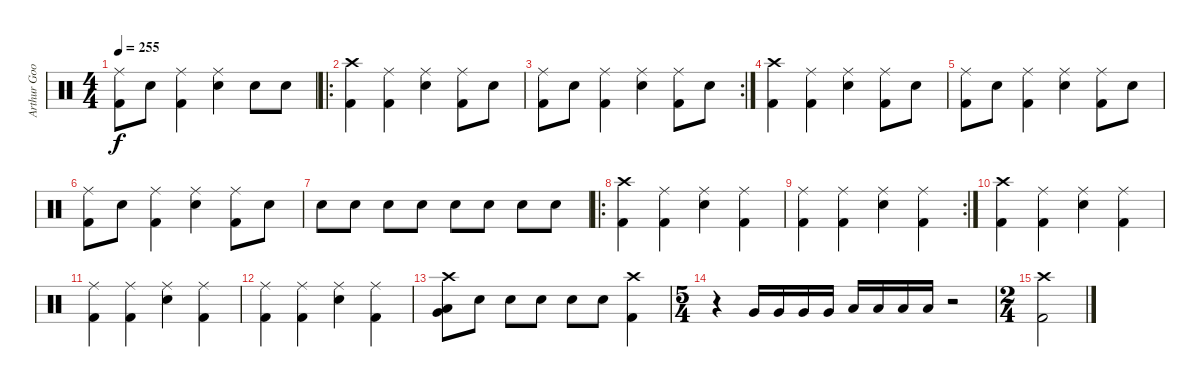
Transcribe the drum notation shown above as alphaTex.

\track ("Arthur Googy" "Arthur Goo") {instrument percussion}
\staff {score}
\articulation defaults
\ts (4 4)
\tempo 255
\clef neutral
\ks c
("Ride (middle)" "Kick (hit) 2").8{dy f} "Electric Snare (hit)".8 ("Ride (middle)" "Kick (hit) 2").4 ("Ride (middle)" "Electric Snare (hit)").4 "Electric Snare (hit)".8 "Electric Snare (hit)".8 |
\ro
("Crash high (hit)" "Kick (hit) 2").4 ("Ride (middle)" "Kick (hit) 2").4 ("Ride (middle)" "Electric Snare (hit)").4 ("Ride (middle)" "Kick (hit) 2").8 "Electric Snare (hit)".8 |
\rc 2
("Ride (middle)" "Kick (hit) 2").8 "Electric Snare (hit)".8 ("Ride (middle)" "Kick (hit) 2").4 ("Ride (middle)" "Electric Snare (hit)").4 ("Ride (middle)" "Kick (hit) 2").8 "Electric Snare (hit)".8 |
("Crash high (hit)" "Kick (hit) 2").4 ("Ride (middle)" "Kick (hit) 2").4 ("Ride (middle)" "Electric Snare (hit)").4 ("Ride (middle)" "Kick (hit) 2").8 "Electric Snare (hit)".8 |
("Ride (middle)" "Kick (hit) 2").8 "Electric Snare (hit)".8 ("Ride (middle)" "Kick (hit) 2").4 ("Ride (middle)" "Electric Snare (hit)").4 ("Ride (middle)" "Kick (hit) 2").8 "Electric Snare (hit)".8 |
("Ride (middle)" "Kick (hit) 2").8 "Electric Snare (hit)".8 ("Ride (middle)" "Kick (hit) 2").4 ("Ride (middle)" "Electric Snare (hit)").4 ("Ride (middle)" "Kick (hit) 2").8 "Electric Snare (hit)".8 |
"Electric Snare (hit)".8 "Electric Snare (hit)".8 "Electric Snare (hit)".8 "Electric Snare (hit)".8 "Electric Snare (hit)".8 "Electric Snare (hit)".8 "Electric Snare (hit)".8 "Electric Snare (hit)".8 |
\ro
("Crash high (hit)" "Kick (hit) 2").4 ("Ride (middle)" "Kick (hit) 2").4 ("Ride (middle)" "Electric Snare (hit)").4 ("Ride (middle)" "Kick (hit) 2").4 |
\rc 2
("Ride (middle)" "Kick (hit) 2").4 ("Ride (middle)" "Kick (hit) 2").4 ("Ride (middle)" "Electric Snare (hit)").4 ("Ride (middle)" "Kick (hit) 2").4 |
("Crash high (hit)" "Kick (hit) 2").4 ("Ride (middle)" "Kick (hit) 2").4 ("Ride (middle)" "Electric Snare (hit)").4 ("Ride (middle)" "Kick (hit) 2").4 |
("Ride (middle)" "Kick (hit) 2").4 ("Ride (middle)" "Kick (hit) 2").4 ("Ride (middle)" "Electric Snare (hit)").4 ("Ride (middle)" "Kick (hit) 2").4 |
("Ride (middle)" "Kick (hit) 2").4 ("Ride (middle)" "Kick (hit) 2").4 ("Ride (middle)" "Electric Snare (hit)").4 ("Ride (middle)" "Kick (hit) 2").4 |
("Crash high (hit)" "Low Tom (hit)" "Very Low Tom (hit)").8 "Electric Snare (hit)".8 "Electric Snare (hit)".8 "Electric Snare (hit)".8 "Electric Snare (hit)".8 "Electric Snare (hit)".8 ("Crash high (hit)" "Kick (hit) 2").4 |
\ts (5 4)
r.4 "Very Low Tom (hit)".16 "Very Low Tom (hit)".16 "Very Low Tom (hit)".16 "Very Low Tom (hit)".16 "Low Tom (hit)".16 "Low Tom (hit)".16 "Low Tom (hit)".16 "Low Tom (hit)".16 r.2 |
\ts (2 4)
("Crash high (hit)" "Kick (hit) 2").2
